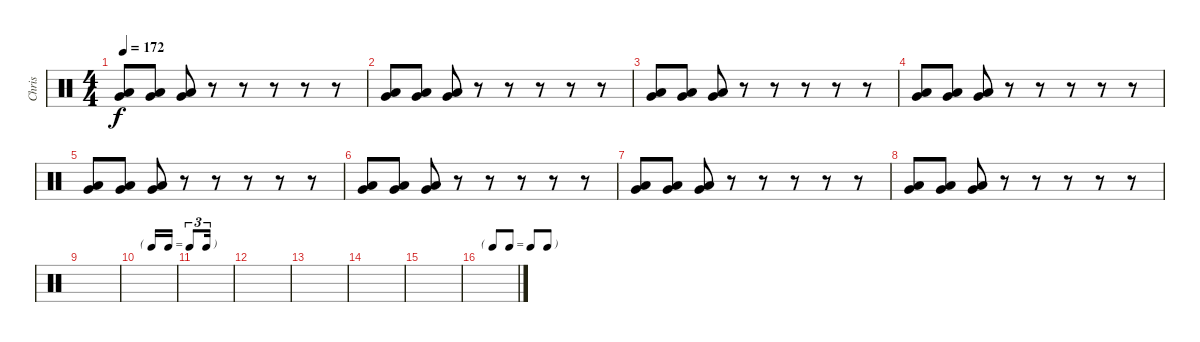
\track ("Chris" "Chris") {instrument percussion}
\staff {score}
\articulation defaults
\ts (4 4)
\tempo 172
\clef neutral
\ks c
("Very Low Tom (hit)" "Low Floor Tom (hit)").8{dy f} ("Very Low Tom (hit)" "Low Floor Tom (hit)").8 ("Very Low Tom (hit)" "Low Floor Tom (hit)").8 r.8 r.8 r.8 r.8 r.8 |
("Very Low Tom (hit)" "Low Floor Tom (hit)").8 ("Very Low Tom (hit)" "Low Floor Tom (hit)").8 ("Very Low Tom (hit)" "Low Floor Tom (hit)").8 r.8 r.8 r.8 r.8 r.8 |
("Very Low Tom (hit)" "Low Floor Tom (hit)").8 ("Very Low Tom (hit)" "Low Floor Tom (hit)").8 ("Very Low Tom (hit)" "Low Floor Tom (hit)").8 r.8 r.8 r.8 r.8 r.8 |
("Very Low Tom (hit)" "Low Floor Tom (hit)").8 ("Very Low Tom (hit)" "Low Floor Tom (hit)").8 ("Very Low Tom (hit)" "Low Floor Tom (hit)").8 r.8 r.8 r.8 r.8 r.8 |
("Very Low Tom (hit)" "Low Floor Tom (hit)").8 ("Very Low Tom (hit)" "Low Floor Tom (hit)").8 ("Very Low Tom (hit)" "Low Floor Tom (hit)").8 r.8 r.8 r.8 r.8 r.8 |
("Very Low Tom (hit)" "Low Floor Tom (hit)").8 ("Very Low Tom (hit)" "Low Floor Tom (hit)").8 ("Very Low Tom (hit)" "Low Floor Tom (hit)").8 r.8 r.8 r.8 r.8 r.8 |
("Very Low Tom (hit)" "Low Floor Tom (hit)").8 ("Very Low Tom (hit)" "Low Floor Tom (hit)").8 ("Very Low Tom (hit)" "Low Floor Tom (hit)").8 r.8 r.8 r.8 r.8 r.8 |
("Very Low Tom (hit)" "Low Floor Tom (hit)").8 ("Very Low Tom (hit)" "Low Floor Tom (hit)").8 ("Very Low Tom (hit)" "Low Floor Tom (hit)").8 r.8 r.8 r.8 r.8 r.8 |
|
\tf triplet16th
|
|
|
|
|
|
\tf none
